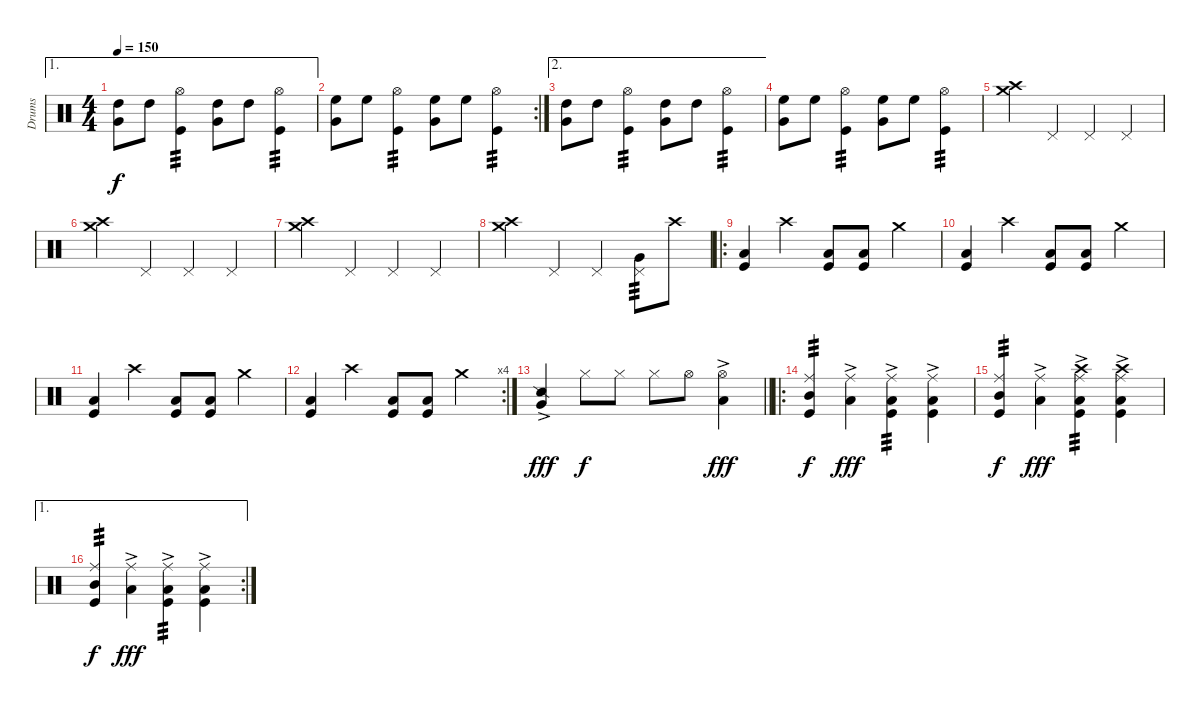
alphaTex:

\track ("Drums" "Drums") {instrument percussion}
\staff {score}
\articulation defaults
\ae 1
\ts (4 4)
\tempo 150
\clef neutral
\ks c
("High Tom (hit)" "Very Low Tom (hit)").8{dy f} "High Tom (hit)".8 ("Hi-Hat (open)" "Kick (hit)").4{tp 3} ("High Tom (hit)" "Very Low Tom (hit)").8 "High Tom (hit)".8 ("Hi-Hat (open)" "Kick (hit)").4{tp 3} |
\rc 2
("High Floor Tom (hit)" "Very Low Tom (hit)").8 "High Floor Tom (hit)".8 ("Hi-Hat (open)" "Kick (hit)").4{tp 3} ("High Floor Tom (hit)" "Very Low Tom (hit)").8 "High Floor Tom (hit)".8 ("Hi-Hat (open)" "Kick (hit)").4{tp 3} |
\ae 2
("High Tom (hit)" "Very Low Tom (hit)").8 "High Tom (hit)".8 ("Hi-Hat (open)" "Kick (hit)").4{tp 3} ("High Tom (hit)" "Very Low Tom (hit)").8 "High Tom (hit)".8 ("Hi-Hat (open)" "Kick (hit)").4{tp 3} |
("High Floor Tom (hit)" "Very Low Tom (hit)").8 "High Floor Tom (hit)".8 ("Hi-Hat (open)" "Kick (hit)").4{tp 3} ("High Floor Tom (hit)" "Very Low Tom (hit)").8 "High Floor Tom (hit)".8 ("Hi-Hat (open)" "Kick (hit)").4{tp 3} |
("Crash high (hit)" "Crash medium (hit)").4 "Pedal Hi-Hat (hit)".4 "Pedal Hi-Hat (hit)".4 "Pedal Hi-Hat (hit)".4 |
("Crash high (hit)" "Crash medium (hit)").4 "Pedal Hi-Hat (hit)".4 "Pedal Hi-Hat (hit)".4 "Pedal Hi-Hat (hit)".4 |
("Crash high (hit)" "Crash medium (hit)").4 "Pedal Hi-Hat (hit)".4 "Pedal Hi-Hat (hit)".4 "Pedal Hi-Hat (hit)".4 |
("Crash high (hit)" "Crash medium (hit)").4 "Pedal Hi-Hat (hit)".4 "Pedal Hi-Hat (hit)".4 ("Pedal Hi-Hat (hit)" "Very Low Tom (hit)").8{tp 3} "Crash high (hit)".8 |
\ro
("Low Tom (hit)" "Kick (hit)").4 "Crash high (hit)".4 ("Low Tom (hit)" "Kick (hit)").8 ("Low Tom (hit)" "Kick (hit)").8 "Crash medium (hit)".4 |
("Low Tom (hit)" "Kick (hit)").4 "Crash high (hit)".4 ("Low Tom (hit)" "Kick (hit)").8 ("Low Tom (hit)" "Kick (hit)").8 "Crash medium (hit)".4 |
("Low Tom (hit)" "Kick (hit)").4 "Crash high (hit)".4 ("Low Tom (hit)" "Kick (hit)").8 ("Low Tom (hit)" "Kick (hit)").8 "Crash medium (hit)".4 |
\rc 4
("Low Tom (hit)" "Kick (hit)").4 "Crash high (hit)".4 ("Low Tom (hit)" "Kick (hit)").8 ("Low Tom (hit)" "Kick (hit)").8 "Crash medium (hit)".4 |
\barLineRight lightlight
("Snare (side stick) 2"{ac} "Very Low Tom (hit)"{ac}).4{dy fff} "Hi-Hat (closed)".8{dy f} "Hi-Hat (closed)".8 "Hi-Hat (closed)".8 "Hi-Hat (open)".8 ("Hi-Hat (open)" "Low Floor Tom (hit)"{ac}).4{dy fff} |
\ro
("Ride (middle)" "Mid Tom (hit)" "Kick (hit)").4{tp 3 dy f} ("Ride (middle)" "Low Tom (hit)"{ac}).4{dy fff} ("Ride (middle)" "Low Tom (hit)"{ac} "Kick (hit)").4{tp 3} ("Ride (middle)" "Low Tom (hit)"{ac} "Kick (hit)").4 |
("Ride (middle)" "Mid Tom (hit)" "Kick (hit)").4{tp 3 dy f} ("Ride (middle)" "Low Tom (hit)"{ac}).4{dy fff} ("Ride (middle)" "Low Floor Tom (hit)"{ac} "Crash high (hit)" "Kick (hit)").4{tp 3} ("Ride (middle)" "Low Floor Tom (hit)"{ac} "Crash high (hit)" "Kick (hit)").4 |
\ae 1
\rc 2
("Ride (middle)" "Mid Tom (hit)" "Kick (hit)").4{tp 3 dy f} ("Ride (middle)" "Low Tom (hit)"{ac}).4{dy fff} ("Ride (middle)" "Low Tom (hit)"{ac} "Kick (hit)").4{tp 3} ("Ride (middle)" "Low Tom (hit)"{ac} "Kick (hit)").4
